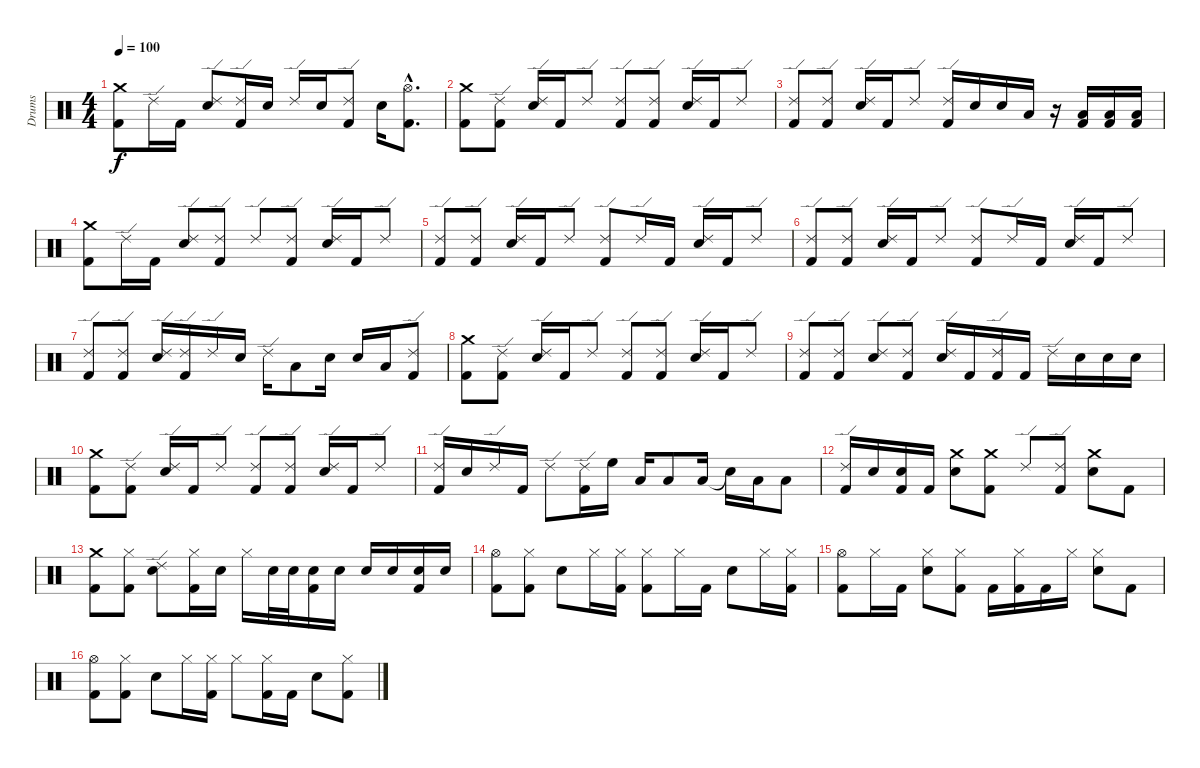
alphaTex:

\track ("Drums" "Drums") {instrument percussion}
\staff {score}
\articulation defaults
\ts (4 4)
\tempo 100
\clef neutral
\ks c
("Crash medium (hit)" "Kick (hit) 2").8{dy f} "Ride (edge) 2".16 "Kick (hit) 2".16 ("Ride (edge) 2" "Electric Snare (hit)").8 ("Ride (edge) 2" "Kick (hit) 2").16 "Electric Snare (hit)".16 "Ride (edge) 2".16 "Electric Snare (hit)".16 ("Ride (edge) 2" "Kick (hit) 2").8 "Electric Snare (hit)".16 ("Hi-Hat (open)"{hac} "Kick (hit) 2"{hac}).8{d} |
("Crash medium (hit)" "Kick (hit) 2").8 ("Ride (edge) 2" "Kick (hit) 2").8 ("Ride (edge) 2" "Electric Snare (hit)").16 "Kick (hit) 2".16 "Ride (edge) 2".8 ("Ride (edge) 2" "Kick (hit) 2").8 ("Ride (edge) 2" "Kick (hit) 2").8 ("Ride (edge) 2" "Electric Snare (hit)").16 "Kick (hit) 2".16 "Ride (edge) 2".8 |
("Ride (edge) 2" "Kick (hit) 2").8 ("Ride (edge) 2" "Kick (hit) 2").8 ("Ride (edge) 2" "Electric Snare (hit)").16 "Kick (hit) 2".16 "Ride (edge) 2".8 ("Ride (edge) 2" "Kick (hit) 2").16 "Electric Snare (hit)".16 "Electric Snare (hit)".16 "Low Floor Tom (hit)".16 r.16 ("Low Floor Tom (hit)" "Kick (hit) 2").16 ("Low Floor Tom (hit)" "Kick (hit) 2").16 ("Low Floor Tom (hit)" "Kick (hit) 2").16 |
("Crash medium (hit)" "Kick (hit) 2").8 "Ride (edge) 2".16 "Kick (hit) 2".16 ("Ride (edge) 2" "Electric Snare (hit)").8 ("Ride (edge) 2" "Kick (hit) 2").8 "Ride (edge) 2".8 ("Ride (edge) 2" "Kick (hit) 2").8 ("Ride (edge) 2" "Electric Snare (hit)").16 "Kick (hit) 2".16 "Ride (edge) 2".8 |
("Ride (edge) 2" "Kick (hit) 2").8 ("Ride (edge) 2" "Kick (hit) 2").8 ("Ride (edge) 2" "Electric Snare (hit)").16 "Kick (hit) 2".16 "Ride (edge) 2".8 ("Ride (edge) 2" "Kick (hit) 2").8 "Ride (edge) 2".16 "Kick (hit) 2".16 ("Ride (edge) 2" "Electric Snare (hit)").16 "Kick (hit) 2".16 "Ride (edge) 2".8 |
("Ride (edge) 2" "Kick (hit) 2").8 ("Ride (edge) 2" "Kick (hit) 2").8 ("Ride (edge) 2" "Electric Snare (hit)").16 "Kick (hit) 2".16 "Ride (edge) 2".8 ("Ride (edge) 2" "Kick (hit) 2").8 "Ride (edge) 2".16 "Kick (hit) 2".16 ("Ride (edge) 2" "Electric Snare (hit)").16 "Kick (hit) 2".16 "Ride (edge) 2".8 |
("Ride (edge) 2" "Kick (hit) 2").8 ("Ride (edge) 2" "Kick (hit) 2").8 ("Ride (edge) 2" "Electric Snare (hit)").16 ("Ride (edge) 2" "Kick (hit) 2").16 "Ride (edge) 2".16 "Electric Snare (hit)".16 "Ride (edge) 2".16 "Low Floor Tom (hit)".8 "Electric Snare (hit)".16 "Electric Snare (hit)".16 "Low Floor Tom (hit)".16 ("Ride (edge) 2" "Kick (hit) 2").8 |
("Crash medium (hit)" "Kick (hit) 2").8 ("Ride (edge) 2" "Kick (hit) 2").8 ("Ride (edge) 2" "Electric Snare (hit)").16 "Kick (hit) 2".16 "Ride (edge) 2".8 ("Ride (edge) 2" "Kick (hit) 2").8 ("Ride (edge) 2" "Kick (hit) 2").8 ("Ride (edge) 2" "Electric Snare (hit)").16 "Kick (hit) 2".16 "Ride (edge) 2".8 |
("Ride (edge) 2" "Kick (hit) 2").8 ("Ride (edge) 2" "Kick (hit) 2").8 ("Ride (edge) 2" "Electric Snare (hit)").8 ("Ride (edge) 2" "Kick (hit) 2").8 ("Ride (edge) 2" "Electric Snare (hit)").16 "Kick (hit) 2".16 ("Ride (edge) 2" "Kick (hit) 2").16 "Kick (hit) 2".16 "Ride (edge) 2".16 "Electric Snare (hit)".16 "Electric Snare (hit)".16 "Electric Snare (hit)".16 |
("Crash medium (hit)" "Kick (hit) 2").8 ("Ride (edge) 2" "Kick (hit) 2").8 ("Ride (edge) 2" "Electric Snare (hit)").16 "Kick (hit) 2".16 "Ride (edge) 2".8 ("Ride (edge) 2" "Kick (hit) 2").8 ("Ride (edge) 2" "Kick (hit) 2").8 ("Ride (edge) 2" "Electric Snare (hit)").16 "Kick (hit) 2".16 "Ride (edge) 2".8 |
("Ride (edge) 2" "Kick (hit) 2").16 "Electric Snare (hit)".16 "Ride (edge) 2".16 "Kick (hit) 2".16 "Ride (edge) 2".8 ("Ride (edge) 2" "Kick (hit) 2").16 "High Floor Tom (hit)".16 "Low Tom (hit)".16 "Low Tom (hit)".8 "Low Tom (hit)".16 "Snare (hit)"{t}.16 "Low Tom (hit)".16 "Low Tom (hit)".8 |
("Ride (edge) 2" "Kick (hit) 2").16 "Electric Snare (hit)".16 ("Electric Snare (hit)" "Kick (hit) 2").16 "Kick (hit) 2".16 ("Crash medium (hit)" "Electric Snare (hit)").8 ("Crash medium (hit)" "Kick (hit) 2").8 "Ride (edge) 2".8 ("Ride (edge) 2" "Kick (hit) 2").8 ("Crash medium (hit)" "Electric Snare (hit)").8 "Kick (hit) 2".8 |
("Crash medium (hit)" "Kick (hit) 2").8 ("Hi-Hat (closed)" "Kick (hit) 2").8 ("Ride (edge) 2" "Electric Snare (hit)").8 ("Hi-Hat (closed)" "Kick (hit) 2").16 "Electric Snare (hit)".16 "Hi-Hat (closed)".16 "Electric Snare (hit)".32 "Electric Snare (hit)".32 ("Electric Snare (hit)" "Kick (hit) 2").16 "Electric Snare (hit)".16 "Electric Snare (hit)".16 "Electric Snare (hit)".16 ("Electric Snare (hit)" "Kick (hit) 2").16 "Electric Snare (hit)".16 |
("Hi-Hat (open)" "Kick (hit) 2").8 ("Hi-Hat (closed)" "Kick (hit) 2").8 "Electric Snare (hit)".8 "Hi-Hat (closed)".16 ("Hi-Hat (closed)" "Kick (hit) 2").16 ("Hi-Hat (closed)" "Kick (hit) 2").8 "Hi-Hat (closed)".16 "Kick (hit) 2".16 "Electric Snare (hit)".8 "Hi-Hat (closed)".16 ("Hi-Hat (closed)" "Kick (hit) 2").16 |
("Hi-Hat (open)" "Kick (hit) 2").8 "Hi-Hat (closed)".16 "Kick (hit) 2".16 ("Hi-Hat (closed)" "Electric Snare (hit)").8 ("Hi-Hat (closed)" "Kick (hit) 2").8 "Kick (hit) 2".16 ("Hi-Hat (closed)" "Kick (hit) 2").16 "Kick (hit) 2".16 "Hi-Hat (closed)".16 ("Hi-Hat (closed)" "Electric Snare (hit)").8 "Kick (hit) 2".8 |
("Hi-Hat (open)" "Kick (hit) 2").8 ("Hi-Hat (closed)" "Kick (hit) 2").8 "Electric Snare (hit)".8 "Hi-Hat (closed)".16 ("Hi-Hat (closed)" "Kick (hit) 2").16 "Hi-Hat (closed)".8 ("Hi-Hat (closed)" "Kick (hit) 2").16 "Kick (hit) 2".16 "Electric Snare (hit)".8 ("Hi-Hat (closed)" "Kick (hit) 2").8
